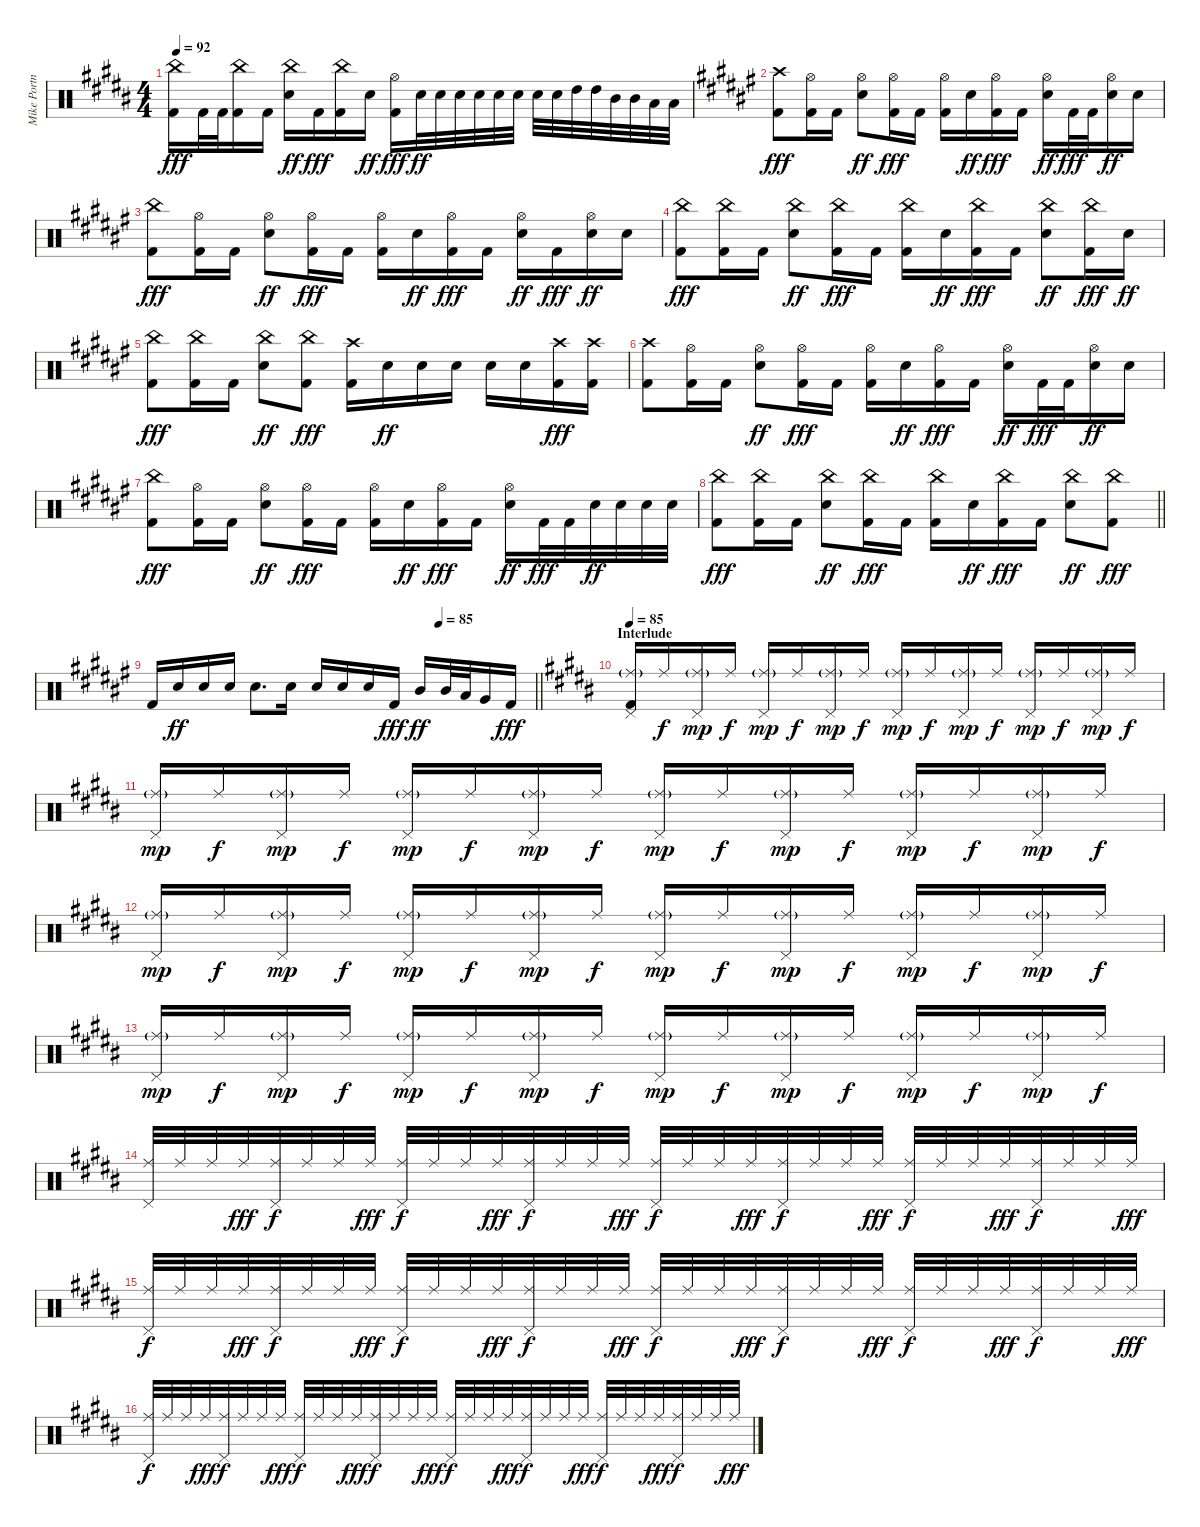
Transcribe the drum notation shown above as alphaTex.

\track ("Mike Portnoy" "Mike Portn") {instrument percussion}
\staff {score}
\articulation defaults
\ts (4 4)
\tempo 92
\clef neutral
\ks b
("China (hit)" "Kick (hit) 2").16{dy fff} "Kick (hit) 2".32 "Kick (hit) 2".32 ("China (hit)" "Kick (hit) 2").16 "Kick (hit) 2".16 ("China (hit)" "Electric Snare (hit)").16{dy ff} "Kick (hit) 2".16{dy fff} ("China (hit)" "Kick (hit) 2").16 "Electric Snare (hit)".16{dy ff} ("Hi-Hat (open)" "Kick (hit) 2").16{dy fff} "Electric Snare (hit)".32{dy ff} "Electric Snare (hit)".32 "Electric Snare (hit)".32 "Electric Snare (hit)".32 "Electric Snare (hit)".32 "Electric Snare (hit)".32 "Electric Snare (hit)".32 "Electric Snare (hit)".32 "High Tom (hit)".32 "High Tom (hit)".32 "Mid Tom (hit)".32 "Mid Tom (hit)".32 "Low Tom (hit)".32 "Low Tom (hit)".32 |
\ks f#
("Crash high (hit)" "Kick (hit) 2").8{dy fff} ("Hi-Hat (open)" "Kick (hit) 2").16 "Kick (hit) 2".16 ("Hi-Hat (open)" "Electric Snare (hit)").8{dy ff} ("Hi-Hat (open)" "Kick (hit) 2").16{dy fff} "Kick (hit) 2".16 ("Hi-Hat (open)" "Kick (hit) 2").16 "Electric Snare (hit)".16{dy ff} ("Hi-Hat (open)" "Kick (hit) 2").16{dy fff} "Kick (hit) 2".16 ("Hi-Hat (open)" "Electric Snare (hit)").16{dy ff} "Kick (hit) 2".32{dy fff} "Kick (hit) 2".32 ("Hi-Hat (open)" "Electric Snare (hit)").16{dy ff} "Electric Snare (hit)".16 |
("China (hit)" "Kick (hit) 2").8{dy fff} ("Hi-Hat (open)" "Kick (hit) 2").16 "Kick (hit) 2".16 ("Hi-Hat (open)" "Electric Snare (hit)").8{dy ff} ("Hi-Hat (open)" "Kick (hit) 2").16{dy fff} "Kick (hit) 2".16 ("Hi-Hat (open)" "Kick (hit) 2").16 "Electric Snare (hit)".16{dy ff} ("Hi-Hat (open)" "Kick (hit) 2").16{dy fff} "Kick (hit) 2".16 ("Hi-Hat (open)" "Electric Snare (hit)").16{dy ff} "Kick (hit) 2".16{dy fff} ("Hi-Hat (open)" "Electric Snare (hit)").16{dy ff} "Electric Snare (hit)".16 |
("China (hit)" "Kick (hit) 2").8{dy fff} ("China (hit)" "Kick (hit) 2").16 "Kick (hit) 2".16 ("China (hit)" "Electric Snare (hit)").8{dy ff} ("China (hit)" "Kick (hit) 2").16{dy fff} "Kick (hit) 2".16 ("China (hit)" "Kick (hit) 2").16 "Electric Snare (hit)".16{dy ff} ("China (hit)" "Kick (hit) 2").16{dy fff} "Kick (hit) 2".16 ("China (hit)" "Electric Snare (hit)").8{dy ff} ("China (hit)" "Kick (hit) 2").16{dy fff} "Electric Snare (hit)".16{dy ff} |
("China (hit)" "Kick (hit) 2").8{dy fff} ("China (hit)" "Kick (hit) 2").16 "Kick (hit) 2".16 ("China (hit)" "Electric Snare (hit)").8{dy ff} ("China (hit)" "Kick (hit) 2").8{dy fff} ("Crash high (hit)" "Kick (hit) 2").16 "Electric Snare (hit)".16{dy ff} "Electric Snare (hit)".16 "Electric Snare (hit)".16 "Electric Snare (hit)".16 "Electric Snare (hit)".16 ("Crash high (hit)" "Kick (hit) 2").16{dy fff} ("Crash high (hit)" "Kick (hit) 2").16 |
("Crash high (hit)" "Kick (hit) 2").8 ("Hi-Hat (open)" "Kick (hit) 2").16 "Kick (hit) 2".16 ("Hi-Hat (open)" "Electric Snare (hit)").8{dy ff} ("Hi-Hat (open)" "Kick (hit) 2").16{dy fff} "Kick (hit) 2".16 ("Hi-Hat (open)" "Kick (hit) 2").16 "Electric Snare (hit)".16{dy ff} ("Hi-Hat (open)" "Kick (hit) 2").16{dy fff} "Kick (hit) 2".16 ("Hi-Hat (open)" "Electric Snare (hit)").16{dy ff} "Kick (hit) 2".32{dy fff} "Kick (hit) 2".32 ("Hi-Hat (open)" "Electric Snare (hit)").16{dy ff} "Electric Snare (hit)".16 |
("China (hit)" "Kick (hit) 2").8{dy fff} ("Hi-Hat (open)" "Kick (hit) 2").16 "Kick (hit) 2".16 ("Hi-Hat (open)" "Electric Snare (hit)").8{dy ff} ("Hi-Hat (open)" "Kick (hit) 2").16{dy fff} "Kick (hit) 2".16 ("Hi-Hat (open)" "Kick (hit) 2").16 "Electric Snare (hit)".16{dy ff} ("Hi-Hat (open)" "Kick (hit) 2").16{dy fff} "Kick (hit) 2".16 ("Hi-Hat (open)" "Electric Snare (hit)").16{dy ff} "Kick (hit) 2".32{dy fff} "Kick (hit) 2".32 "Electric Snare (hit)".32{dy ff} "Electric Snare (hit)".32 "Electric Snare (hit)".32 "Electric Snare (hit)".32 |
\barLineRight lightlight
("China (hit)" "Kick (hit) 2").8{dy fff} ("China (hit)" "Kick (hit) 2").16 "Kick (hit) 2".16 ("China (hit)" "Electric Snare (hit)").8{dy ff} ("China (hit)" "Kick (hit) 2").16{dy fff} "Kick (hit) 2".16 ("China (hit)" "Kick (hit) 2").16 "Electric Snare (hit)".16{dy ff} ("China (hit)" "Kick (hit) 2").16{dy fff} "Kick (hit) 2".16 ("China (hit)" "Electric Snare (hit)").8{dy ff} ("China (hit)" "Kick (hit) 2").8{dy fff} |
\tempo (85 0.75)
\barLineRight lightlight "Kick (hit) 2".16 "Electric Snare (hit)".16{dy ff} "Electric Snare (hit)".16 "Electric Snare (hit)".16 "Electric Snare (hit)".8{d} "Electric Snare (hit)".16 "Electric Snare (hit)".16 "Electric Snare (hit)".16 "Electric Snare (hit)".16 "Kick (hit) 2".16{dy fff} "Mid Tom (hit)".16{dy ff} "Mid Tom (hit)".32 "Low Tom (hit)".32 "Very Low Tom (hit)".16 "Kick (hit) 2".16{dy fff}
|
\section ("" "Interlude")
\tempo 85
\ks b
("Ride (middle)"{g} "Kick (hit) 2" "Pedal Hi-Hat (hit)").16 "Ride (middle)".16{dy f} ("Ride (middle)"{g} "Pedal Hi-Hat (hit)").16{dy mp} "Ride (middle)".16{dy f} ("Ride (middle)"{g} "Pedal Hi-Hat (hit)").16{dy mp} "Ride (middle)".16{dy f} ("Ride (middle)"{g} "Pedal Hi-Hat (hit)").16{dy mp} "Ride (middle)".16{dy f} ("Ride (middle)"{g} "Pedal Hi-Hat (hit)").16{dy mp} "Ride (middle)".16{dy f} ("Ride (middle)"{g} "Pedal Hi-Hat (hit)").16{dy mp} "Ride (middle)".16{dy f} ("Ride (middle)"{g} "Pedal Hi-Hat (hit)").16{dy mp} "Ride (middle)".16{dy f} ("Ride (middle)"{g} "Pedal Hi-Hat (hit)").16{dy mp} "Ride (middle)".16{dy f} |
("Ride (middle)"{g} "Pedal Hi-Hat (hit)").16{dy mp} "Ride (middle)".16{dy f} ("Ride (middle)"{g} "Pedal Hi-Hat (hit)").16{dy mp} "Ride (middle)".16{dy f} ("Ride (middle)"{g} "Pedal Hi-Hat (hit)").16{dy mp} "Ride (middle)".16{dy f} ("Ride (middle)"{g} "Pedal Hi-Hat (hit)").16{dy mp} "Ride (middle)".16{dy f} ("Ride (middle)"{g} "Pedal Hi-Hat (hit)").16{dy mp} "Ride (middle)".16{dy f} ("Ride (middle)"{g} "Pedal Hi-Hat (hit)").16{dy mp} "Ride (middle)".16{dy f} ("Ride (middle)"{g} "Pedal Hi-Hat (hit)").16{dy mp} "Ride (middle)".16{dy f} ("Ride (middle)"{g} "Pedal Hi-Hat (hit)").16{dy mp} "Ride (middle)".16{dy f} |
("Ride (middle)"{g} "Pedal Hi-Hat (hit)").16{dy mp} "Ride (middle)".16{dy f} ("Ride (middle)"{g} "Pedal Hi-Hat (hit)").16{dy mp} "Ride (middle)".16{dy f} ("Ride (middle)"{g} "Pedal Hi-Hat (hit)").16{dy mp} "Ride (middle)".16{dy f} ("Ride (middle)"{g} "Pedal Hi-Hat (hit)").16{dy mp} "Ride (middle)".16{dy f} ("Ride (middle)"{g} "Pedal Hi-Hat (hit)").16{dy mp} "Ride (middle)".16{dy f} ("Ride (middle)"{g} "Pedal Hi-Hat (hit)").16{dy mp} "Ride (middle)".16{dy f} ("Ride (middle)"{g} "Pedal Hi-Hat (hit)").16{dy mp} "Ride (middle)".16{dy f} ("Ride (middle)"{g} "Pedal Hi-Hat (hit)").16{dy mp} "Ride (middle)".16{dy f} |
("Ride (middle)"{g} "Pedal Hi-Hat (hit)").16{dy mp} "Ride (middle)".16{dy f} ("Ride (middle)"{g} "Pedal Hi-Hat (hit)").16{dy mp} "Ride (middle)".16{dy f} ("Ride (middle)"{g} "Pedal Hi-Hat (hit)").16{dy mp} "Ride (middle)".16{dy f} ("Ride (middle)"{g} "Pedal Hi-Hat (hit)").16{dy mp} "Ride (middle)".16{dy f} ("Ride (middle)"{g} "Pedal Hi-Hat (hit)").16{dy mp} "Ride (middle)".16{dy f} ("Ride (middle)"{g} "Pedal Hi-Hat (hit)").16{dy mp} "Ride (middle)".16{dy f} ("Ride (middle)"{g} "Pedal Hi-Hat (hit)").16{dy mp} "Ride (middle)".16{dy f} ("Ride (middle)"{g} "Pedal Hi-Hat (hit)").16{dy mp} "Ride (middle)".16{dy f} |
("Ride (middle)" "Pedal Hi-Hat (hit)").32 "Ride (middle)".32 "Ride (middle)".32 "Ride (middle)".32{dy fff} ("Ride (middle)" "Pedal Hi-Hat (hit)").32{dy f} "Ride (middle)".32 "Ride (middle)".32 "Ride (middle)".32{dy fff} ("Ride (middle)" "Pedal Hi-Hat (hit)").32{dy f} "Ride (middle)".32 "Ride (middle)".32 "Ride (middle)".32{dy fff} ("Ride (middle)" "Pedal Hi-Hat (hit)").32{dy f} "Ride (middle)".32 "Ride (middle)".32 "Ride (middle)".32{dy fff} ("Ride (middle)" "Pedal Hi-Hat (hit)").32{dy f} "Ride (middle)".32 "Ride (middle)".32 "Ride (middle)".32{dy fff} ("Ride (middle)" "Pedal Hi-Hat (hit)").32{dy f} "Ride (middle)".32 "Ride (middle)".32 "Ride (middle)".32{dy fff} ("Ride (middle)" "Pedal Hi-Hat (hit)").32{dy f} "Ride (middle)".32 "Ride (middle)".32 "Ride (middle)".32{dy fff} ("Ride (middle)" "Pedal Hi-Hat (hit)").32{dy f} "Ride (middle)".32 "Ride (middle)".32 "Ride (middle)".32{dy fff} |
("Ride (middle)" "Pedal Hi-Hat (hit)").32{dy f} "Ride (middle)".32 "Ride (middle)".32 "Ride (middle)".32{dy fff} ("Ride (middle)" "Pedal Hi-Hat (hit)").32{dy f} "Ride (middle)".32 "Ride (middle)".32 "Ride (middle)".32{dy fff} ("Ride (middle)" "Pedal Hi-Hat (hit)").32{dy f} "Ride (middle)".32 "Ride (middle)".32 "Ride (middle)".32{dy fff} ("Ride (middle)" "Pedal Hi-Hat (hit)").32{dy f} "Ride (middle)".32 "Ride (middle)".32 "Ride (middle)".32{dy fff} ("Ride (middle)" "Pedal Hi-Hat (hit)").32{dy f} "Ride (middle)".32 "Ride (middle)".32 "Ride (middle)".32{dy fff} ("Ride (middle)" "Pedal Hi-Hat (hit)").32{dy f} "Ride (middle)".32 "Ride (middle)".32 "Ride (middle)".32{dy fff} ("Ride (middle)" "Pedal Hi-Hat (hit)").32{dy f} "Ride (middle)".32 "Ride (middle)".32 "Ride (middle)".32{dy fff} ("Ride (middle)" "Pedal Hi-Hat (hit)").32{dy f} "Ride (middle)".32 "Ride (middle)".32 "Ride (middle)".32{dy fff} |
("Ride (middle)" "Pedal Hi-Hat (hit)").32{dy f} "Ride (middle)".32 "Ride (middle)".32 "Ride (middle)".32{dy fff} ("Ride (middle)" "Pedal Hi-Hat (hit)").32{dy f} "Ride (middle)".32 "Ride (middle)".32 "Ride (middle)".32{dy fff} ("Ride (middle)" "Pedal Hi-Hat (hit)").32{dy f} "Ride (middle)".32 "Ride (middle)".32 "Ride (middle)".32{dy fff} ("Ride (middle)" "Pedal Hi-Hat (hit)").32{dy f} "Ride (middle)".32 "Ride (middle)".32 "Ride (middle)".32{dy fff} ("Ride (middle)" "Pedal Hi-Hat (hit)").32{dy f} "Ride (middle)".32 "Ride (middle)".32 "Ride (middle)".32{dy fff} ("Ride (middle)" "Pedal Hi-Hat (hit)").32{dy f} "Ride (middle)".32 "Ride (middle)".32 "Ride (middle)".32{dy fff} ("Ride (middle)" "Pedal Hi-Hat (hit)").32{dy f} "Ride (middle)".32 "Ride (middle)".32 "Ride (middle)".32{dy fff} ("Ride (middle)" "Pedal Hi-Hat (hit)").32{dy f} "Ride (middle)".32 "Ride (middle)".32 "Ride (middle)".32{dy fff}
